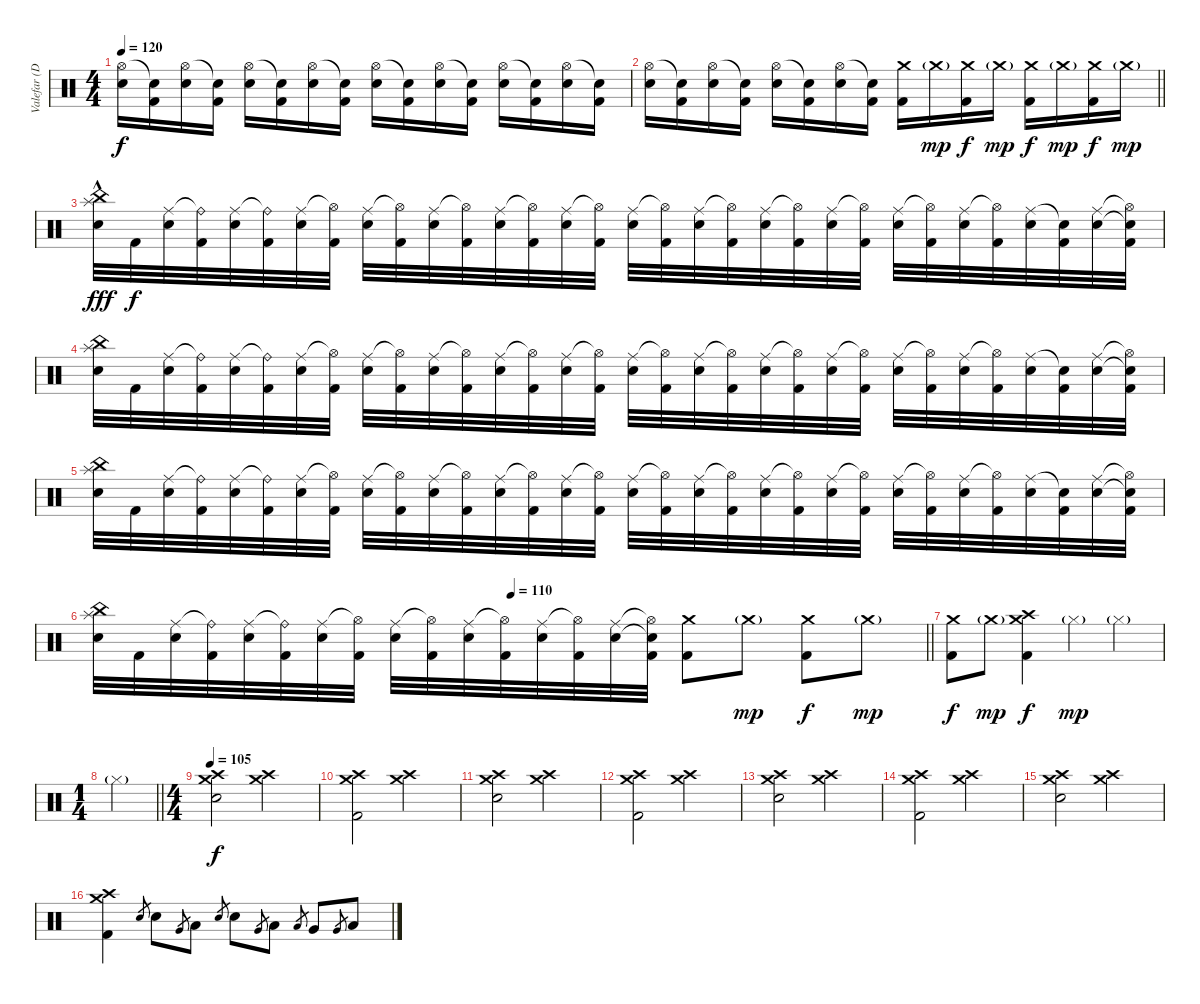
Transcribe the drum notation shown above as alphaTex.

\track ("Valefar (Drums)" "Valefar (D") {instrument percussion}
\staff {score}
\articulation defaults
\ts (4 4)
\tempo 120
\clef neutral
\ks c
("Hi-Hat (open)" "Electric Snare (hit)").16{dy f} ("Snare (hit)"{t} "Kick (hit) 2").16 ("Hi-Hat (open)" "Electric Snare (hit)").16 ("Snare (hit)"{t} "Kick (hit) 2").16 ("Hi-Hat (open)" "Electric Snare (hit)").16 ("Snare (hit)"{t} "Kick (hit) 2").16 ("Hi-Hat (open)" "Electric Snare (hit)").16 ("Snare (hit)"{t} "Kick (hit) 2").16 ("Hi-Hat (open)" "Electric Snare (hit)").16 ("Snare (hit)"{t} "Kick (hit) 2").16 ("Hi-Hat (open)" "Electric Snare (hit)").16 ("Snare (hit)"{t} "Kick (hit) 2").16 ("Hi-Hat (open)" "Electric Snare (hit)").16 ("Snare (hit)"{t} "Kick (hit) 2").16 ("Hi-Hat (open)" "Electric Snare (hit)").16 ("Snare (hit)"{t} "Kick (hit) 2").16 |
\barLineRight lightlight
("Hi-Hat (open)" "Electric Snare (hit)").16 ("Snare (hit)"{t} "Kick (hit) 2").16 ("Hi-Hat (open)" "Electric Snare (hit)").16 ("Snare (hit)"{t} "Kick (hit) 2").16 ("Hi-Hat (open)" "Electric Snare (hit)").16 ("Snare (hit)"{t} "Kick (hit) 2").16 ("Hi-Hat (open)" "Electric Snare (hit)").16 ("Snare (hit)"{t} "Kick (hit) 2").16 ("Crash medium (hit)" "Kick (hit) 2").16 "Crash medium (hit)"{g}.16{dy mp} ("Crash medium (hit)" "Kick (hit) 2").16{dy f} "Crash medium (hit)"{g}.16{dy mp} ("Crash medium (hit)" "Kick (hit) 2").16{dy f} "Crash medium (hit)"{g}.16{dy mp} ("Crash medium (hit)" "Kick (hit) 2").16{dy f} "Crash medium (hit)"{g}.16{dy mp} |
("China (hit)"{hac} "Splash (hit)" "Electric Snare (hit)").32{dy fff} "Kick (hit) 2".32{dy f} ("Ride (middle)" "Electric Snare (hit)").32 ("Ride (bell)"{t} "Kick (hit) 2").32 ("Ride (middle)" "Electric Snare (hit)").32 ("Ride (bell)"{t} "Kick (hit) 2").32 ("Ride (middle)" "Electric Snare (hit)").32 ("Hi-Hat (open)"{t} "Kick (hit) 2").32 ("Ride (middle)" "Electric Snare (hit)").32 ("Hi-Hat (open)"{t} "Kick (hit) 2").32 ("Ride (middle)" "Electric Snare (hit)").32 ("Hi-Hat (open)"{t} "Kick (hit) 2").32 ("Ride (middle)" "Electric Snare (hit)").32 ("Hi-Hat (open)"{t} "Kick (hit) 2").32 ("Ride (middle)" "Electric Snare (hit)").32 ("Hi-Hat (open)"{t} "Kick (hit) 2").32 ("Ride (middle)" "Electric Snare (hit)").32 ("Hi-Hat (open)"{t} "Kick (hit) 2").32 ("Ride (middle)" "Electric Snare (hit)").32 ("Hi-Hat (open)"{t} "Kick (hit) 2").32 ("Ride (middle)" "Electric Snare (hit)").32 ("Hi-Hat (open)"{t} "Kick (hit) 2").32 ("Ride (middle)" "Electric Snare (hit)").32 ("Hi-Hat (open)"{t} "Kick (hit) 2").32 ("Ride (middle)" "Electric Snare (hit)").32 ("Hi-Hat (open)"{t} "Kick (hit) 2").32 ("Ride (middle)" "Electric Snare (hit)").32 ("Hi-Hat (open)"{t} "Kick (hit) 2").32 ("Ride (middle)" "Electric Snare (hit)").32 ("Snare (hit)"{t} "Kick (hit) 2").32 ("Ride (middle)" "Electric Snare (hit)").32 ("Hi-Hat (open)"{t} "Snare (hit)"{t} "Kick (hit) 2").32 |
("China (hit)" "Splash (hit)" "Electric Snare (hit)").32 "Kick (hit) 2".32 ("Ride (middle)" "Electric Snare (hit)").32 ("Ride (bell)"{t} "Kick (hit) 2").32 ("Ride (middle)" "Electric Snare (hit)").32 ("Ride (bell)"{t} "Kick (hit) 2").32 ("Ride (middle)" "Electric Snare (hit)").32 ("Hi-Hat (open)"{t} "Kick (hit) 2").32 ("Ride (middle)" "Electric Snare (hit)").32 ("Hi-Hat (open)"{t} "Kick (hit) 2").32 ("Ride (middle)" "Electric Snare (hit)").32 ("Hi-Hat (open)"{t} "Kick (hit) 2").32 ("Ride (middle)" "Electric Snare (hit)").32 ("Hi-Hat (open)"{t} "Kick (hit) 2").32 ("Ride (middle)" "Electric Snare (hit)").32 ("Hi-Hat (open)"{t} "Kick (hit) 2").32 ("Ride (middle)" "Electric Snare (hit)").32 ("Hi-Hat (open)"{t} "Kick (hit) 2").32 ("Ride (middle)" "Electric Snare (hit)").32 ("Hi-Hat (open)"{t} "Kick (hit) 2").32 ("Ride (middle)" "Electric Snare (hit)").32 ("Hi-Hat (open)"{t} "Kick (hit) 2").32 ("Ride (middle)" "Electric Snare (hit)").32 ("Hi-Hat (open)"{t} "Kick (hit) 2").32 ("Ride (middle)" "Electric Snare (hit)").32 ("Hi-Hat (open)"{t} "Kick (hit) 2").32 ("Ride (middle)" "Electric Snare (hit)").32 ("Hi-Hat (open)"{t} "Kick (hit) 2").32 ("Ride (middle)" "Electric Snare (hit)").32 ("Snare (hit)"{t} "Kick (hit) 2").32 ("Ride (middle)" "Electric Snare (hit)").32 ("Hi-Hat (open)"{t} "Snare (hit)"{t} "Kick (hit) 2").32 |
("China (hit)" "Splash (hit)" "Electric Snare (hit)").32 "Kick (hit) 2".32 ("Ride (middle)" "Electric Snare (hit)").32 ("Ride (bell)"{t} "Kick (hit) 2").32 ("Ride (middle)" "Electric Snare (hit)").32 ("Ride (bell)"{t} "Kick (hit) 2").32 ("Ride (middle)" "Electric Snare (hit)").32 ("Hi-Hat (open)"{t} "Kick (hit) 2").32 ("Ride (middle)" "Electric Snare (hit)").32 ("Hi-Hat (open)"{t} "Kick (hit) 2").32 ("Ride (middle)" "Electric Snare (hit)").32 ("Hi-Hat (open)"{t} "Kick (hit) 2").32 ("Ride (middle)" "Electric Snare (hit)").32 ("Hi-Hat (open)"{t} "Kick (hit) 2").32 ("Ride (middle)" "Electric Snare (hit)").32 ("Hi-Hat (open)"{t} "Kick (hit) 2").32 ("Ride (middle)" "Electric Snare (hit)").32 ("Hi-Hat (open)"{t} "Kick (hit) 2").32 ("Ride (middle)" "Electric Snare (hit)").32 ("Hi-Hat (open)"{t} "Kick (hit) 2").32 ("Ride (middle)" "Electric Snare (hit)").32 ("Hi-Hat (open)"{t} "Kick (hit) 2").32 ("Ride (middle)" "Electric Snare (hit)").32 ("Hi-Hat (open)"{t} "Kick (hit) 2").32 ("Ride (middle)" "Electric Snare (hit)").32 ("Hi-Hat (open)"{t} "Kick (hit) 2").32 ("Ride (middle)" "Electric Snare (hit)").32 ("Hi-Hat (open)"{t} "Kick (hit) 2").32 ("Ride (middle)" "Electric Snare (hit)").32 ("Snare (hit)"{t} "Kick (hit) 2").32 ("Ride (middle)" "Electric Snare (hit)").32 ("Hi-Hat (open)"{t} "Snare (hit)"{t} "Kick (hit) 2").32 |
\tempo (110 0.5)
\barLineRight lightlight
("China (hit)" "Splash (hit)" "Electric Snare (hit)").32 "Kick (hit) 2".32 ("Ride (middle)" "Electric Snare (hit)").32 ("Ride (bell)"{t} "Kick (hit) 2").32 ("Ride (middle)" "Electric Snare (hit)").32 ("Ride (bell)"{t} "Kick (hit) 2").32 ("Ride (middle)" "Electric Snare (hit)").32 ("Hi-Hat (open)"{t} "Kick (hit) 2").32 ("Ride (middle)" "Electric Snare (hit)").32 ("Hi-Hat (open)"{t} "Kick (hit) 2").32 ("Ride (middle)" "Electric Snare (hit)").32 ("Hi-Hat (open)"{t} "Kick (hit) 2").32 ("Ride (middle)" "Electric Snare (hit)").32 ("Hi-Hat (open)"{t} "Kick (hit) 2").32 ("Ride (middle)" "Electric Snare (hit)").32 ("Hi-Hat (open)"{t} "Snare (hit)"{t} "Kick (hit) 2").32 ("Crash medium (hit)" "Kick (hit) 2").8 "Crash medium (hit)"{g}.8{dy mp} ("Crash medium (hit)" "Kick (hit) 2").8{dy f} "Crash medium (hit)"{g}.8{dy mp} |
("Crash medium (hit)" "Kick (hit) 2").8{dy f} "Crash medium (hit)"{g}.8{dy mp} ("Crash medium (hit)" "Crash high (hit)" "Kick (hit) 2").4{dy f} "Hi-Hat (closed)"{g}.4{dy mp} "Hi-Hat (closed)"{g}.4 |
\ts (1 4)
\barLineRight lightlight "Hi-Hat (closed)"{g}.4
|
\ts (4 4)
\tempo 100
\tempo 105
("Crash medium (hit)" "Crash high (hit)" "Electric Snare (hit)").2{dy f} ("Crash medium (hit)" "Crash high (hit)").2 |
("Crash medium (hit)" "Crash high (hit)" "Kick (hit) 2").2 ("Crash medium (hit)" "Crash high (hit)").2 |
("Crash medium (hit)" "Crash high (hit)" "Electric Snare (hit)").2 ("Crash medium (hit)" "Crash high (hit)").2 |
("Crash medium (hit)" "Crash high (hit)" "Kick (hit) 2").2 ("Crash medium (hit)" "Crash high (hit)").2 |
("Crash medium (hit)" "Crash high (hit)" "Electric Snare (hit)").2 ("Crash medium (hit)" "Crash high (hit)").2 |
("Crash medium (hit)" "Crash high (hit)" "Kick (hit) 2").2 ("Crash medium (hit)" "Crash high (hit)").2 |
("Crash medium (hit)" "Crash high (hit)" "Electric Snare (hit)").2 ("Crash medium (hit)" "Crash high (hit)").2 |
("Crash medium (hit)" "Crash high (hit)" "Kick (hit) 2").4 "Electric Snare (hit)".8{gr} "Electric Snare (hit)".8 "Very Low Tom (hit)".8{gr} "Low Tom (hit)".8 "Electric Snare (hit)".8{gr} "Electric Snare (hit)".8 "Very Low Tom (hit)".8{gr} "Low Tom (hit)".8 "Low Tom (hit)".8{gr} "Very Low Tom (hit)".8 "Very Low Tom (hit)".8{gr} "Low Floor Tom (hit)".8
